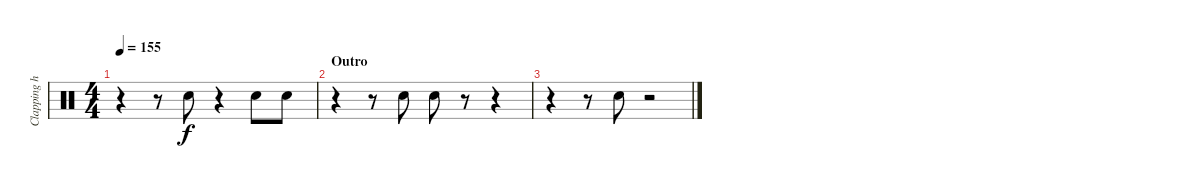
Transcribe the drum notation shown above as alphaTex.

\track ("Clapping hands" "Clapping h") {instrument percussion}
\staff {score}
\articulation defaults
\ts (4 4)
\tempo 155
\clef neutral
\ks c
r.4{dy f} r.8 "Hand Clap (hit)".8 r.4 "Hand Clap (hit)".8 "Hand Clap (hit)".8 |
\section ("" "Outro")
r.4 r.8 "Hand Clap (hit)".8 "Hand Clap (hit)".8 r.8 r.4 |
r.4 r.8 "Hand Clap (hit)".8 r.2
